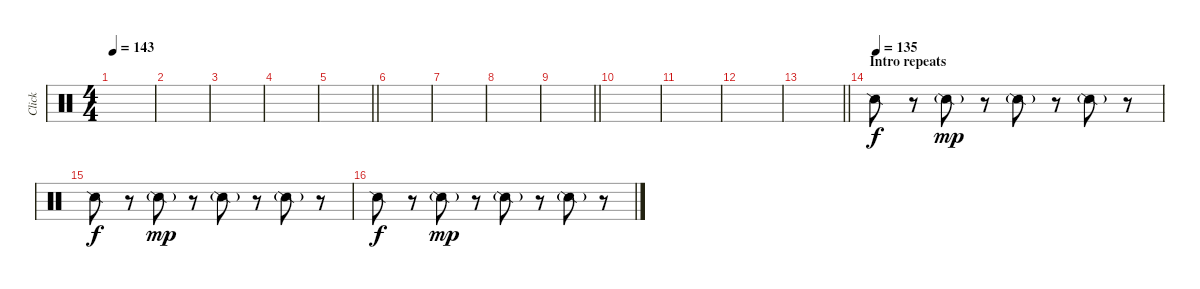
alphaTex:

\track ("Click" "Click") {mute instrument percussion}
\staff {score}
\articulation defaults
\ts (4 4)
\tempo 143
\clef neutral
\ks c
|
|
|
|
\barLineRight lightlight
|
|
|
|
\barLineRight lightlight
|
|
|
|
\barLineRight lightlight
|
\section ("" "Intro repeats")
\tempo (135)
"Snare (side stick) 2".8{dy f} r.8 "Snare (side stick) 2"{g}.8{dy mp} r.8 "Snare (side stick) 2"{g}.8 r.8 "Snare (side stick) 2"{g}.8 r.8 |
"Snare (side stick) 2".8{dy f} r.8 "Snare (side stick) 2"{g}.8{dy mp} r.8 "Snare (side stick) 2"{g}.8 r.8 "Snare (side stick) 2"{g}.8 r.8 |
"Snare (side stick) 2".8{dy f} r.8 "Snare (side stick) 2"{g}.8{dy mp} r.8 "Snare (side stick) 2"{g}.8 r.8 "Snare (side stick) 2"{g}.8 r.8
